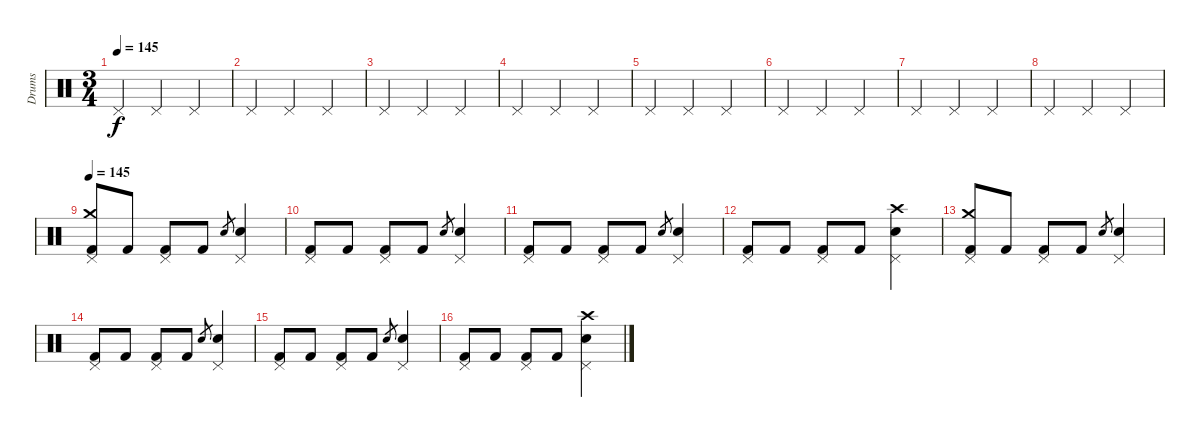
\track ("Drums" "Drums") {instrument percussion}
\staff {score}
\articulation defaults
\ts (3 4)
\tempo 145
\clef neutral
\ks c "Pedal Hi-Hat (hit)".4{dy f} "Pedal Hi-Hat (hit)".4 "Pedal Hi-Hat (hit)".4
|
"Pedal Hi-Hat (hit)".4 "Pedal Hi-Hat (hit)".4 "Pedal Hi-Hat (hit)".4 |
"Pedal Hi-Hat (hit)".4 "Pedal Hi-Hat (hit)".4 "Pedal Hi-Hat (hit)".4 |
"Pedal Hi-Hat (hit)".4 "Pedal Hi-Hat (hit)".4 "Pedal Hi-Hat (hit)".4 |
"Pedal Hi-Hat (hit)".4 "Pedal Hi-Hat (hit)".4 "Pedal Hi-Hat (hit)".4 |
"Pedal Hi-Hat (hit)".4 "Pedal Hi-Hat (hit)".4 "Pedal Hi-Hat (hit)".4 |
"Pedal Hi-Hat (hit)".4 "Pedal Hi-Hat (hit)".4 "Pedal Hi-Hat (hit)".4 |
"Pedal Hi-Hat (hit)".4 "Pedal Hi-Hat (hit)".4 "Pedal Hi-Hat (hit)".4 |
\tempo 145
("Pedal Hi-Hat (hit)" "Crash medium (hit)" "Kick (hit) 2").8 "Kick (hit) 2".8 ("Pedal Hi-Hat (hit)" "Kick (hit) 2").8 "Kick (hit) 2".8 "Electric Snare (hit)".8{gr} ("Pedal Hi-Hat (hit)" "Electric Snare (hit)").4 |
("Pedal Hi-Hat (hit)" "Kick (hit) 2").8 "Kick (hit) 2".8 ("Pedal Hi-Hat (hit)" "Kick (hit) 2").8 "Kick (hit) 2".8 "Electric Snare (hit)".8{gr} ("Pedal Hi-Hat (hit)" "Electric Snare (hit)").4 |
("Pedal Hi-Hat (hit)" "Kick (hit) 2").8 "Kick (hit) 2".8 ("Pedal Hi-Hat (hit)" "Kick (hit) 2").8 "Kick (hit) 2".8 "Electric Snare (hit)".8{gr} ("Pedal Hi-Hat (hit)" "Electric Snare (hit)").4 |
("Pedal Hi-Hat (hit)" "Kick (hit) 2").8 "Kick (hit) 2".8 ("Pedal Hi-Hat (hit)" "Kick (hit) 2").8 "Kick (hit) 2".8 ("Pedal Hi-Hat (hit)" "Crash high (hit)" "Electric Snare (hit)").4 |
("Pedal Hi-Hat (hit)" "Crash medium (hit)" "Kick (hit) 2").8 "Kick (hit) 2".8 ("Pedal Hi-Hat (hit)" "Kick (hit) 2").8 "Kick (hit) 2".8 "Electric Snare (hit)".8{gr} ("Pedal Hi-Hat (hit)" "Electric Snare (hit)").4 |
("Pedal Hi-Hat (hit)" "Kick (hit) 2").8 "Kick (hit) 2".8 ("Pedal Hi-Hat (hit)" "Kick (hit) 2").8 "Kick (hit) 2".8 "Electric Snare (hit)".8{gr} ("Pedal Hi-Hat (hit)" "Electric Snare (hit)").4 |
("Pedal Hi-Hat (hit)" "Kick (hit) 2").8 "Kick (hit) 2".8 ("Pedal Hi-Hat (hit)" "Kick (hit) 2").8 "Kick (hit) 2".8 "Electric Snare (hit)".8{gr} ("Pedal Hi-Hat (hit)" "Electric Snare (hit)").4 |
("Pedal Hi-Hat (hit)" "Kick (hit) 2").8 "Kick (hit) 2".8 ("Pedal Hi-Hat (hit)" "Kick (hit) 2").8 "Kick (hit) 2".8 ("Pedal Hi-Hat (hit)" "Crash high (hit)" "Electric Snare (hit)").4
